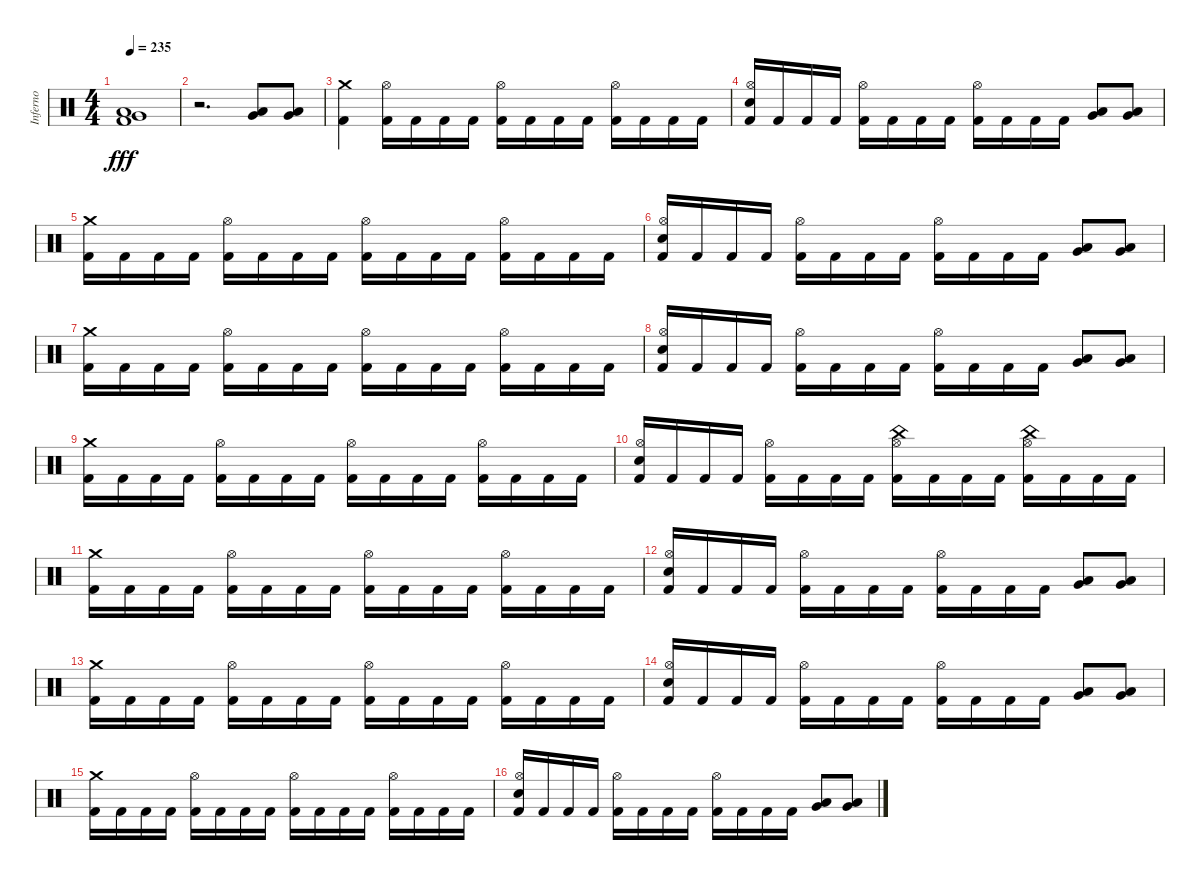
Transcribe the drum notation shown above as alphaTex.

\track ("Inferno" "Inferno") {instrument percussion}
\staff {score}
\articulation defaults
\ts (4 4)
\tempo 235
\clef neutral
\ks c
("Kick (hit) 2" "Very Low Tom (hit)" "Low Floor Tom (hit)").1{dy fff} |
r.2{d} ("Very Low Tom (hit)" "Low Floor Tom (hit)").8 ("Very Low Tom (hit)" "Low Floor Tom (hit)").8 |
("Kick (hit) 2" "Crash medium (hit)").4 ("Kick (hit) 2" "Hi-Hat (open)").16 "Kick (hit) 2".16 "Kick (hit) 2".16 "Kick (hit) 2".16 ("Kick (hit) 2" "Hi-Hat (open)").16 "Kick (hit) 2".16 "Kick (hit) 2".16 "Kick (hit) 2".16 ("Kick (hit) 2" "Hi-Hat (open)").16 "Kick (hit) 2".16 "Kick (hit) 2".16 "Kick (hit) 2".16 |
("Kick (hit) 2" "Electric Snare (hit)" "Hi-Hat (open)").16 "Kick (hit) 2".16 "Kick (hit) 2".16 "Kick (hit) 2".16 ("Kick (hit) 2" "Hi-Hat (open)").16 "Kick (hit) 2".16 "Kick (hit) 2".16 "Kick (hit) 2".16 ("Kick (hit) 2" "Hi-Hat (open)").16 "Kick (hit) 2".16 "Kick (hit) 2".16 "Kick (hit) 2".16 ("Very Low Tom (hit)" "Low Floor Tom (hit)").8 ("Very Low Tom (hit)" "Low Floor Tom (hit)").8 |
("Kick (hit) 2" "Crash medium (hit)").16 "Kick (hit) 2".16 "Kick (hit) 2".16 "Kick (hit) 2".16 ("Kick (hit) 2" "Hi-Hat (open)").16 "Kick (hit) 2".16 "Kick (hit) 2".16 "Kick (hit) 2".16 ("Kick (hit) 2" "Hi-Hat (open)").16 "Kick (hit) 2".16 "Kick (hit) 2".16 "Kick (hit) 2".16 ("Kick (hit) 2" "Hi-Hat (open)").16 "Kick (hit) 2".16 "Kick (hit) 2".16 "Kick (hit) 2".16 |
("Kick (hit) 2" "Electric Snare (hit)" "Hi-Hat (open)").16 "Kick (hit) 2".16 "Kick (hit) 2".16 "Kick (hit) 2".16 ("Kick (hit) 2" "Hi-Hat (open)").16 "Kick (hit) 2".16 "Kick (hit) 2".16 "Kick (hit) 2".16 ("Kick (hit) 2" "Hi-Hat (open)").16 "Kick (hit) 2".16 "Kick (hit) 2".16 "Kick (hit) 2".16 ("Very Low Tom (hit)" "Low Floor Tom (hit)").8 ("Very Low Tom (hit)" "Low Floor Tom (hit)").8 |
("Kick (hit) 2" "Crash medium (hit)").16 "Kick (hit) 2".16 "Kick (hit) 2".16 "Kick (hit) 2".16 ("Kick (hit) 2" "Hi-Hat (open)").16 "Kick (hit) 2".16 "Kick (hit) 2".16 "Kick (hit) 2".16 ("Kick (hit) 2" "Hi-Hat (open)").16 "Kick (hit) 2".16 "Kick (hit) 2".16 "Kick (hit) 2".16 ("Kick (hit) 2" "Hi-Hat (open)").16 "Kick (hit) 2".16 "Kick (hit) 2".16 "Kick (hit) 2".16 |
("Kick (hit) 2" "Electric Snare (hit)" "Hi-Hat (open)").16 "Kick (hit) 2".16 "Kick (hit) 2".16 "Kick (hit) 2".16 ("Kick (hit) 2" "Hi-Hat (open)").16 "Kick (hit) 2".16 "Kick (hit) 2".16 "Kick (hit) 2".16 ("Kick (hit) 2" "Hi-Hat (open)").16 "Kick (hit) 2".16 "Kick (hit) 2".16 "Kick (hit) 2".16 ("Very Low Tom (hit)" "Low Floor Tom (hit)").8 ("Very Low Tom (hit)" "Low Floor Tom (hit)").8 |
("Kick (hit) 2" "Crash medium (hit)").16 "Kick (hit) 2".16 "Kick (hit) 2".16 "Kick (hit) 2".16 ("Kick (hit) 2" "Hi-Hat (open)").16 "Kick (hit) 2".16 "Kick (hit) 2".16 "Kick (hit) 2".16 ("Kick (hit) 2" "Hi-Hat (open)").16 "Kick (hit) 2".16 "Kick (hit) 2".16 "Kick (hit) 2".16 ("Kick (hit) 2" "Hi-Hat (open)").16 "Kick (hit) 2".16 "Kick (hit) 2".16 "Kick (hit) 2".16 |
("Kick (hit) 2" "Electric Snare (hit)" "Hi-Hat (open)").16 "Kick (hit) 2".16 "Kick (hit) 2".16 "Kick (hit) 2".16 ("Kick (hit) 2" "Hi-Hat (open)").16 "Kick (hit) 2".16 "Kick (hit) 2".16 "Kick (hit) 2".16 ("Kick (hit) 2" "Hi-Hat (open)" "China (hit)").16 "Kick (hit) 2".16 "Kick (hit) 2".16 "Kick (hit) 2".16 ("Kick (hit) 2" "Hi-Hat (open)" "China (hit)").16 "Kick (hit) 2".16 "Kick (hit) 2".16 "Kick (hit) 2".16 |
("Kick (hit) 2" "Crash medium (hit)").16 "Kick (hit) 2".16 "Kick (hit) 2".16 "Kick (hit) 2".16 ("Kick (hit) 2" "Hi-Hat (open)").16 "Kick (hit) 2".16 "Kick (hit) 2".16 "Kick (hit) 2".16 ("Kick (hit) 2" "Hi-Hat (open)").16 "Kick (hit) 2".16 "Kick (hit) 2".16 "Kick (hit) 2".16 ("Kick (hit) 2" "Hi-Hat (open)").16 "Kick (hit) 2".16 "Kick (hit) 2".16 "Kick (hit) 2".16 |
("Kick (hit) 2" "Electric Snare (hit)" "Hi-Hat (open)").16 "Kick (hit) 2".16 "Kick (hit) 2".16 "Kick (hit) 2".16 ("Kick (hit) 2" "Hi-Hat (open)").16 "Kick (hit) 2".16 "Kick (hit) 2".16 "Kick (hit) 2".16 ("Kick (hit) 2" "Hi-Hat (open)").16 "Kick (hit) 2".16 "Kick (hit) 2".16 "Kick (hit) 2".16 ("Very Low Tom (hit)" "Low Floor Tom (hit)").8 ("Very Low Tom (hit)" "Low Floor Tom (hit)").8 |
("Kick (hit) 2" "Crash medium (hit)").16 "Kick (hit) 2".16 "Kick (hit) 2".16 "Kick (hit) 2".16 ("Kick (hit) 2" "Hi-Hat (open)").16 "Kick (hit) 2".16 "Kick (hit) 2".16 "Kick (hit) 2".16 ("Kick (hit) 2" "Hi-Hat (open)").16 "Kick (hit) 2".16 "Kick (hit) 2".16 "Kick (hit) 2".16 ("Kick (hit) 2" "Hi-Hat (open)").16 "Kick (hit) 2".16 "Kick (hit) 2".16 "Kick (hit) 2".16 |
("Kick (hit) 2" "Electric Snare (hit)" "Hi-Hat (open)").16 "Kick (hit) 2".16 "Kick (hit) 2".16 "Kick (hit) 2".16 ("Kick (hit) 2" "Hi-Hat (open)").16 "Kick (hit) 2".16 "Kick (hit) 2".16 "Kick (hit) 2".16 ("Kick (hit) 2" "Hi-Hat (open)").16 "Kick (hit) 2".16 "Kick (hit) 2".16 "Kick (hit) 2".16 ("Very Low Tom (hit)" "Low Floor Tom (hit)").8 ("Very Low Tom (hit)" "Low Floor Tom (hit)").8 |
("Kick (hit) 2" "Crash medium (hit)").16 "Kick (hit) 2".16 "Kick (hit) 2".16 "Kick (hit) 2".16 ("Kick (hit) 2" "Hi-Hat (open)").16 "Kick (hit) 2".16 "Kick (hit) 2".16 "Kick (hit) 2".16 ("Kick (hit) 2" "Hi-Hat (open)").16 "Kick (hit) 2".16 "Kick (hit) 2".16 "Kick (hit) 2".16 ("Kick (hit) 2" "Hi-Hat (open)").16 "Kick (hit) 2".16 "Kick (hit) 2".16 "Kick (hit) 2".16 |
("Kick (hit) 2" "Electric Snare (hit)" "Hi-Hat (open)").16 "Kick (hit) 2".16 "Kick (hit) 2".16 "Kick (hit) 2".16 ("Kick (hit) 2" "Hi-Hat (open)").16 "Kick (hit) 2".16 "Kick (hit) 2".16 "Kick (hit) 2".16 ("Kick (hit) 2" "Hi-Hat (open)").16 "Kick (hit) 2".16 "Kick (hit) 2".16 "Kick (hit) 2".16 ("Very Low Tom (hit)" "Low Floor Tom (hit)").8 ("Very Low Tom (hit)" "Low Floor Tom (hit)").8
